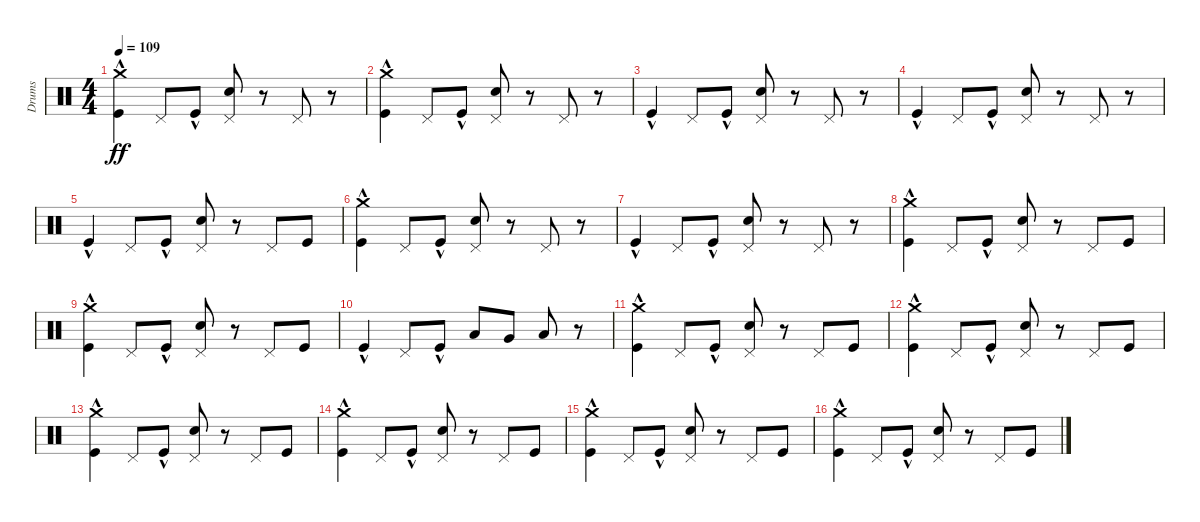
\track ("Drums" "Drums") {instrument percussion}
\staff {score}
\articulation defaults
\ts (4 4)
\tempo 109
\clef neutral
\ks c
("Kick (hit)"{hac} "Crash medium (hit)"{hac}).4{dy ff} "Pedal Hi-Hat (hit)".8 "Kick (hit)"{hac}.8 ("Electric Snare (hit)" "Pedal Hi-Hat (hit)").8 r.8 "Pedal Hi-Hat (hit)".8 r.8 |
("Kick (hit)"{hac} "Crash medium (hit)"{hac}).4 "Pedal Hi-Hat (hit)".8 "Kick (hit)"{hac}.8 ("Electric Snare (hit)" "Pedal Hi-Hat (hit)").8 r.8 "Pedal Hi-Hat (hit)".8 r.8 |
"Kick (hit)"{hac}.4 "Pedal Hi-Hat (hit)".8 "Kick (hit)"{hac}.8 ("Electric Snare (hit)" "Pedal Hi-Hat (hit)").8 r.8 "Pedal Hi-Hat (hit)".8 r.8 |
"Kick (hit)"{hac}.4 "Pedal Hi-Hat (hit)".8 "Kick (hit)"{hac}.8 ("Electric Snare (hit)" "Pedal Hi-Hat (hit)").8 r.8 "Pedal Hi-Hat (hit)".8 r.8 |
"Kick (hit)"{hac}.4 "Pedal Hi-Hat (hit)".8 "Kick (hit)"{hac}.8 ("Electric Snare (hit)" "Pedal Hi-Hat (hit)").8 r.8 "Pedal Hi-Hat (hit)".8 "Kick (hit)".8 |
("Kick (hit)"{hac} "Crash medium (hit)"{hac}).4 "Pedal Hi-Hat (hit)".8 "Kick (hit)"{hac}.8 ("Electric Snare (hit)" "Pedal Hi-Hat (hit)").8 r.8 "Pedal Hi-Hat (hit)".8 r.8 |
"Kick (hit)"{hac}.4 "Pedal Hi-Hat (hit)".8 "Kick (hit)"{hac}.8 ("Electric Snare (hit)" "Pedal Hi-Hat (hit)").8 r.8 "Pedal Hi-Hat (hit)".8 r.8 |
("Kick (hit)"{hac} "Crash medium (hit)"{hac}).4 "Pedal Hi-Hat (hit)".8 "Kick (hit)"{hac}.8 ("Electric Snare (hit)" "Pedal Hi-Hat (hit)").8 r.8 "Pedal Hi-Hat (hit)".8 "Kick (hit)".8 |
("Kick (hit)"{hac} "Crash medium (hit)"{hac}).4 "Pedal Hi-Hat (hit)".8 "Kick (hit)"{hac}.8 ("Electric Snare (hit)" "Pedal Hi-Hat (hit)").8 r.8 "Pedal Hi-Hat (hit)".8 "Kick (hit)".8 |
"Kick (hit)"{hac}.4 "Pedal Hi-Hat (hit)".8 "Kick (hit)"{hac}.8 "Low Tom (hit)".8 "Very Low Tom (hit)".8 "Low Floor Tom (hit)".8 r.8 |
("Kick (hit)"{hac} "Crash medium (hit)"{hac}).4 "Pedal Hi-Hat (hit)".8 "Kick (hit)"{hac}.8 ("Electric Snare (hit)" "Pedal Hi-Hat (hit)").8 r.8 "Pedal Hi-Hat (hit)".8 "Kick (hit)".8 |
("Kick (hit)"{hac} "Crash medium (hit)"{hac}).4 "Pedal Hi-Hat (hit)".8 "Kick (hit)"{hac}.8 ("Electric Snare (hit)" "Pedal Hi-Hat (hit)").8 r.8 "Pedal Hi-Hat (hit)".8 "Kick (hit)".8 |
("Kick (hit)"{hac} "Crash medium (hit)"{hac}).4 "Pedal Hi-Hat (hit)".8 "Kick (hit)"{hac}.8 ("Electric Snare (hit)" "Pedal Hi-Hat (hit)").8 r.8 "Pedal Hi-Hat (hit)".8 "Kick (hit)".8 |
("Kick (hit)"{hac} "Crash medium (hit)"{hac}).4 "Pedal Hi-Hat (hit)".8 "Kick (hit)"{hac}.8 ("Electric Snare (hit)" "Pedal Hi-Hat (hit)").8 r.8 "Pedal Hi-Hat (hit)".8 "Kick (hit)".8 |
("Kick (hit)"{hac} "Crash medium (hit)"{hac}).4 "Pedal Hi-Hat (hit)".8 "Kick (hit)"{hac}.8 ("Electric Snare (hit)" "Pedal Hi-Hat (hit)").8 r.8 "Pedal Hi-Hat (hit)".8 "Kick (hit)".8 |
("Kick (hit)"{hac} "Crash medium (hit)"{hac}).4 "Pedal Hi-Hat (hit)".8 "Kick (hit)"{hac}.8 ("Electric Snare (hit)" "Pedal Hi-Hat (hit)").8 r.8 "Pedal Hi-Hat (hit)".8 "Kick (hit)".8
